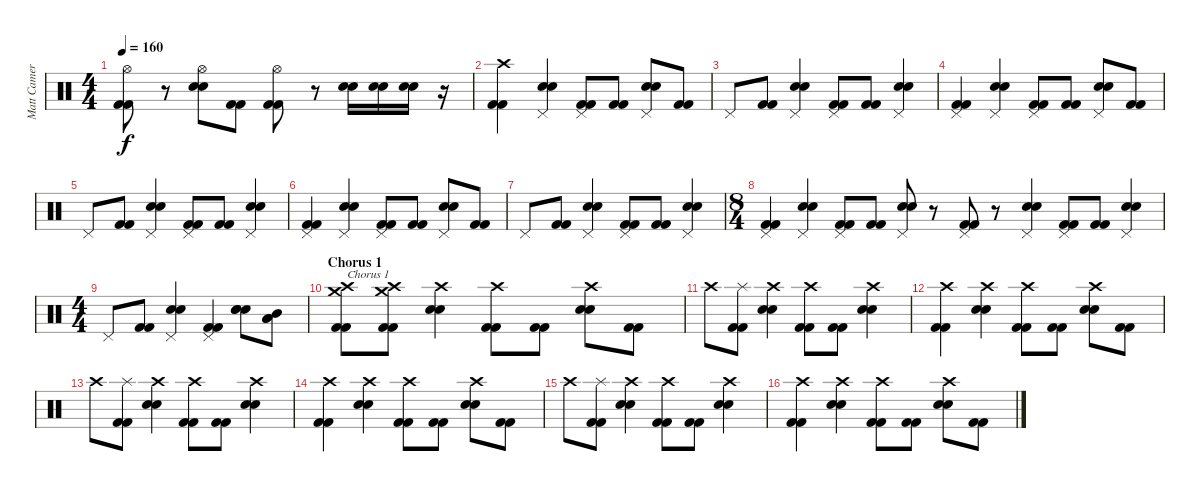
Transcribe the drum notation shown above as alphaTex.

\track ("Matt Cameron" "Matt Camer") {instrument percussion}
\staff {score}
\articulation defaults
\ts (4 4)
\tempo 160
\clef neutral
\ks c
("Kick (hit) 2" "Kick (hit) 2" "Hi-Hat (open)").8{dy f} r.8 ("Electric Snare (hit)" "Electric Snare (hit)" "Hi-Hat (open)").8 ("Kick (hit) 2" "Kick (hit) 2").8 ("Kick (hit) 2" "Kick (hit) 2" "Hi-Hat (open)").8 r.8 ("Electric Snare (hit)" "Electric Snare (hit)").16 ("Electric Snare (hit)" "Electric Snare (hit)").16 ("Electric Snare (hit)" "Electric Snare (hit)").16 r.16 |
("Crash high (hit)" "Kick (hit) 2" "Kick (hit) 2").4 ("Electric Snare (hit)" "Electric Snare (hit)" "Pedal Hi-Hat (hit)").4 ("Kick (hit) 2" "Kick (hit) 2" "Pedal Hi-Hat (hit)").8 ("Kick (hit) 2" "Kick (hit) 2").8 ("Electric Snare (hit)" "Electric Snare (hit)" "Pedal Hi-Hat (hit)").8 ("Kick (hit) 2" "Kick (hit) 2").8 |
"Pedal Hi-Hat (hit)".8 ("Kick (hit) 2" "Kick (hit) 2").8 ("Electric Snare (hit)" "Electric Snare (hit)" "Pedal Hi-Hat (hit)").4 ("Kick (hit) 2" "Kick (hit) 2" "Pedal Hi-Hat (hit)").8 ("Kick (hit) 2" "Kick (hit) 2").8 ("Electric Snare (hit)" "Electric Snare (hit)" "Pedal Hi-Hat (hit)").4 |
("Kick (hit) 2" "Kick (hit) 2" "Pedal Hi-Hat (hit)").4 ("Electric Snare (hit)" "Electric Snare (hit)" "Pedal Hi-Hat (hit)").4 ("Kick (hit) 2" "Kick (hit) 2" "Pedal Hi-Hat (hit)").8 ("Kick (hit) 2" "Kick (hit) 2").8 ("Electric Snare (hit)" "Electric Snare (hit)" "Pedal Hi-Hat (hit)").8 ("Kick (hit) 2" "Kick (hit) 2").8 |
"Pedal Hi-Hat (hit)".8 ("Kick (hit) 2" "Kick (hit) 2").8 ("Electric Snare (hit)" "Electric Snare (hit)" "Pedal Hi-Hat (hit)").4 ("Kick (hit) 2" "Kick (hit) 2" "Pedal Hi-Hat (hit)").8 ("Kick (hit) 2" "Kick (hit) 2").8 ("Electric Snare (hit)" "Electric Snare (hit)" "Pedal Hi-Hat (hit)").4 |
("Kick (hit) 2" "Kick (hit) 2" "Pedal Hi-Hat (hit)").4 ("Electric Snare (hit)" "Electric Snare (hit)" "Pedal Hi-Hat (hit)").4 ("Kick (hit) 2" "Kick (hit) 2" "Pedal Hi-Hat (hit)").8 ("Kick (hit) 2" "Kick (hit) 2").8 ("Electric Snare (hit)" "Electric Snare (hit)" "Pedal Hi-Hat (hit)").8 ("Kick (hit) 2" "Kick (hit) 2").8 |
"Pedal Hi-Hat (hit)".8 ("Kick (hit) 2" "Kick (hit) 2").8 ("Electric Snare (hit)" "Electric Snare (hit)" "Pedal Hi-Hat (hit)").4 ("Kick (hit) 2" "Kick (hit) 2" "Pedal Hi-Hat (hit)").8 ("Kick (hit) 2" "Kick (hit) 2").8 ("Electric Snare (hit)" "Electric Snare (hit)" "Pedal Hi-Hat (hit)").4 |
\ts (8 4)
("Kick (hit) 2" "Kick (hit) 2" "Pedal Hi-Hat (hit)").4 ("Electric Snare (hit)" "Electric Snare (hit)" "Pedal Hi-Hat (hit)").4 ("Kick (hit) 2" "Kick (hit) 2" "Pedal Hi-Hat (hit)").8 ("Kick (hit) 2" "Kick (hit) 2").8 ("Electric Snare (hit)" "Electric Snare (hit)" "Pedal Hi-Hat (hit)").8 r.8 ("Kick (hit) 2" "Kick (hit) 2" "Pedal Hi-Hat (hit)").8 r.8 ("Electric Snare (hit)" "Electric Snare (hit)" "Pedal Hi-Hat (hit)").4 ("Kick (hit) 2" "Kick (hit) 2" "Pedal Hi-Hat (hit)").8 ("Kick (hit) 2" "Kick (hit) 2").8 ("Electric Snare (hit)" "Electric Snare (hit)" "Pedal Hi-Hat (hit)").4 |
\ts (4 4)
"Pedal Hi-Hat (hit)".8 ("Kick (hit) 2" "Kick (hit) 2").8 ("Electric Snare (hit)" "Electric Snare (hit)" "Pedal Hi-Hat (hit)").4 ("Kick (hit) 2" "Kick (hit) 2" "Pedal Hi-Hat (hit)").4 ("Electric Snare (hit)" "Electric Snare (hit)" "Snare (hit) 2").8 ("Low Tom (hit)" "Low Tom (hit)" "Mid Tom (hit)").8 |
\section ("" "Chorus 1")
("Crash medium (hit)" "Kick (hit) 2" "Kick (hit) 2" "Crash high (hit)").8{txt "Chorus 1"} ("Crash high (hit)" "Kick (hit) 2" "Kick (hit) 2" "Crash medium (hit)").8 ("Electric Snare (hit)" "Electric Snare (hit)" "Crash high (hit)").4 ("Kick (hit) 2" "Kick (hit) 2" "Crash high (hit)").8 ("Kick (hit) 2" "Kick (hit) 2").8 ("Electric Snare (hit)" "Electric Snare (hit)" "Crash high (hit)").8 ("Kick (hit) 2" "Kick (hit) 2").8 |
"Crash high (hit)".8 ("Kick (hit) 2" "Kick (hit) 2" "Splash (hit)").8 ("Electric Snare (hit)" "Electric Snare (hit)" "Crash high (hit)").4 ("Kick (hit) 2" "Kick (hit) 2" "Crash high (hit)").8 ("Kick (hit) 2" "Kick (hit) 2").8 ("Electric Snare (hit)" "Electric Snare (hit)" "Crash high (hit)").4 |
("Kick (hit) 2" "Kick (hit) 2" "Crash high (hit)").4 ("Electric Snare (hit)" "Electric Snare (hit)" "Crash high (hit)").4 ("Kick (hit) 2" "Kick (hit) 2" "Crash high (hit)").8 ("Kick (hit) 2" "Kick (hit) 2").8 ("Electric Snare (hit)" "Electric Snare (hit)" "Crash high (hit)").8 ("Kick (hit) 2" "Kick (hit) 2").8 |
"Crash high (hit)".8 ("Kick (hit) 2" "Kick (hit) 2" "Splash (hit)").8 ("Electric Snare (hit)" "Electric Snare (hit)" "Crash high (hit)").4 ("Kick (hit) 2" "Kick (hit) 2" "Crash high (hit)").8 ("Kick (hit) 2" "Kick (hit) 2").8 ("Electric Snare (hit)" "Electric Snare (hit)" "Crash high (hit)").4 |
("Kick (hit) 2" "Kick (hit) 2" "Crash high (hit)").4 ("Electric Snare (hit)" "Electric Snare (hit)" "Crash high (hit)").4 ("Kick (hit) 2" "Kick (hit) 2" "Crash high (hit)").8 ("Kick (hit) 2" "Kick (hit) 2").8 ("Electric Snare (hit)" "Electric Snare (hit)" "Crash high (hit)").8 ("Kick (hit) 2" "Kick (hit) 2").8 |
"Crash high (hit)".8 ("Kick (hit) 2" "Kick (hit) 2" "Splash (hit)").8 ("Electric Snare (hit)" "Electric Snare (hit)" "Crash high (hit)").4 ("Kick (hit) 2" "Kick (hit) 2" "Crash high (hit)").8 ("Kick (hit) 2" "Kick (hit) 2").8 ("Electric Snare (hit)" "Electric Snare (hit)" "Crash high (hit)").4 |
("Kick (hit) 2" "Kick (hit) 2" "Crash high (hit)").4 ("Electric Snare (hit)" "Electric Snare (hit)" "Crash high (hit)").4 ("Kick (hit) 2" "Kick (hit) 2" "Crash high (hit)").8 ("Kick (hit) 2" "Kick (hit) 2").8 ("Electric Snare (hit)" "Electric Snare (hit)" "Crash high (hit)").8 ("Kick (hit) 2" "Kick (hit) 2").8
